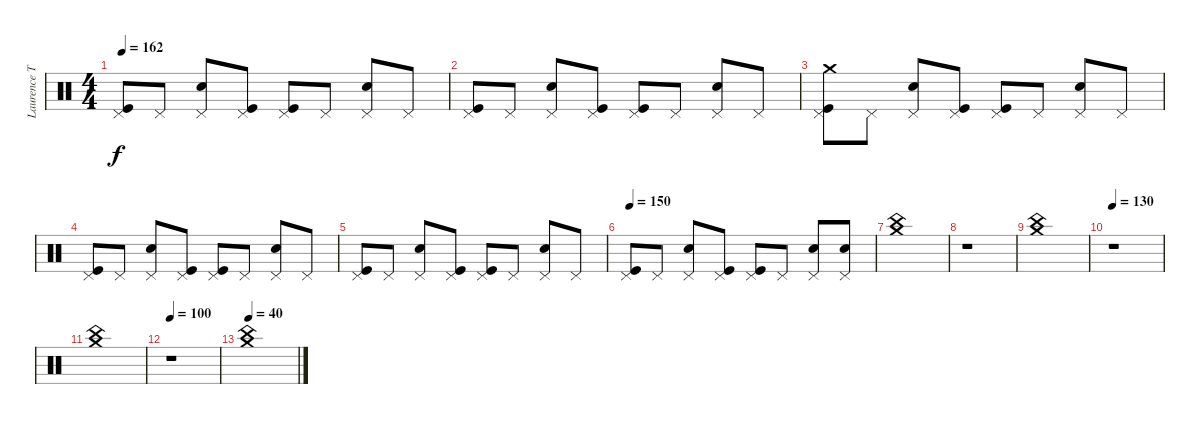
\track ("Laurence Tolhurst (drums)" "Laurence T") {instrument percussion}
\staff {score}
\articulation defaults
\ts (4 4)
\tempo 162
\clef neutral
\ks c
("Pedal Hi-Hat (hit)" "Kick (hit)").8{dy f} "Pedal Hi-Hat (hit)".8 ("Pedal Hi-Hat (hit)" "Snare (hit) 2").8 ("Pedal Hi-Hat (hit)" "Kick (hit)").8 ("Pedal Hi-Hat (hit)" "Kick (hit)").8 "Pedal Hi-Hat (hit)".8 ("Pedal Hi-Hat (hit)" "Snare (hit) 2").8 "Pedal Hi-Hat (hit)".8 |
("Pedal Hi-Hat (hit)" "Kick (hit)").8 "Pedal Hi-Hat (hit)".8 ("Pedal Hi-Hat (hit)" "Snare (hit) 2").8 ("Pedal Hi-Hat (hit)" "Kick (hit)").8 ("Pedal Hi-Hat (hit)" "Kick (hit)").8 "Pedal Hi-Hat (hit)".8 ("Pedal Hi-Hat (hit)" "Snare (hit) 2").8 "Pedal Hi-Hat (hit)".8 |
("Crash medium (hit)" "Pedal Hi-Hat (hit)" "Kick (hit)").8 "Pedal Hi-Hat (hit)".8 ("Pedal Hi-Hat (hit)" "Snare (hit) 2").8 ("Pedal Hi-Hat (hit)" "Kick (hit)").8 ("Pedal Hi-Hat (hit)" "Kick (hit)").8 "Pedal Hi-Hat (hit)".8 ("Pedal Hi-Hat (hit)" "Snare (hit) 2").8 "Pedal Hi-Hat (hit)".8 |
("Pedal Hi-Hat (hit)" "Kick (hit)").8 "Pedal Hi-Hat (hit)".8 ("Pedal Hi-Hat (hit)" "Snare (hit) 2").8 ("Pedal Hi-Hat (hit)" "Kick (hit)").8 ("Pedal Hi-Hat (hit)" "Kick (hit)").8 "Pedal Hi-Hat (hit)".8 ("Pedal Hi-Hat (hit)" "Snare (hit) 2").8 "Pedal Hi-Hat (hit)".8 |
("Pedal Hi-Hat (hit)" "Kick (hit)").8 "Pedal Hi-Hat (hit)".8 ("Pedal Hi-Hat (hit)" "Snare (hit) 2").8 ("Pedal Hi-Hat (hit)" "Kick (hit)").8 ("Pedal Hi-Hat (hit)" "Kick (hit)").8 "Pedal Hi-Hat (hit)".8 ("Pedal Hi-Hat (hit)" "Snare (hit) 2").8 "Pedal Hi-Hat (hit)".8 |
\tempo 150
("Pedal Hi-Hat (hit)" "Kick (hit)").8 "Pedal Hi-Hat (hit)".8 ("Pedal Hi-Hat (hit)" "Snare (hit) 2").8 ("Pedal Hi-Hat (hit)" "Kick (hit)").8 ("Pedal Hi-Hat (hit)" "Kick (hit)").8 "Pedal Hi-Hat (hit)".8 ("Pedal Hi-Hat (hit)" "Snare (hit) 2").8 ("Pedal Hi-Hat (hit)" "Snare (hit) 2").8 |
("China (hit)" "Crash medium (hit)").1 |
r.1 |
("China (hit)" "Crash medium (hit)").1 |
\tempo 130
r.1 |
("China (hit)" "Crash medium (hit)").1 |
\tempo 100
r.1 |
\tempo 40
("China (hit)" "Crash medium (hit)").1
